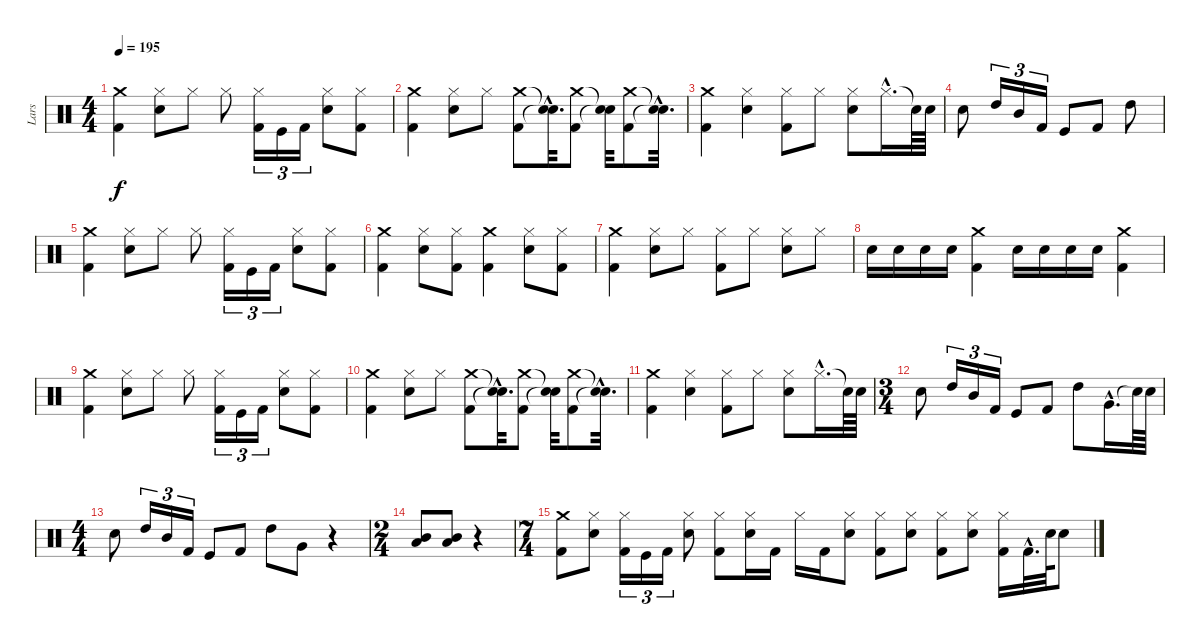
\track ("Lars" "Lars") {instrument percussion}
\staff {score}
\articulation defaults
\ts (4 4)
\tempo 195
\clef neutral
\ks c
("Kick (hit) 2" "Crash medium (hit)").4{dy f} ("Snare (hit) 2" "Hi-Hat (closed)").8 "Hi-Hat (closed)".8 "Hi-Hat (closed)".8 ("Kick (hit) 2" "Hi-Hat (closed)").16{tu (3 2)} "Kick (hit)".16{tu (3 2)} "Kick (hit) 2".16{tu (3 2)} ("Snare (hit) 2" "Hi-Hat (closed)").8 ("Kick (hit) 2" "Hi-Hat (closed)").8 |
("Kick (hit) 2" "Crash medium (hit)").4 ("Hi-Hat (closed)" "Snare (hit) 2").8 "Hi-Hat (closed)".8 ("Kick (hit) 2" "Crash medium (hit)").8 ("Snare (hit)"{hac t} "Snare (hit)"{hac t}).32{d} ("Kick (hit) 2" "Crash medium (hit)").8 ("Snare (hit)"{t} "Snare (hit)"{t}).32 ("Kick (hit) 2" "Crash medium (hit)").8 ("Snare (hit)"{hac t} "Snare (hit)"{hac t}).32{d} |
("Kick (hit) 2" "Crash medium (hit)").4 ("Hi-Hat (closed)" "Snare (hit) 2").4 ("Hi-Hat (closed)" "Kick (hit) 2").8 "Hi-Hat (closed)".8 ("Snare (hit) 2" "Hi-Hat (closed)").8 "Hi-Hat (closed)"{hac}.16{d} "Snare (hit)"{t}.64 "Snare (hit) 2".64 |
"Snare (hit) 2".8 "High Tom (hit)".16{tu (3 2)} "Mid Tom (hit)".16{tu (3 2)} "Kick (hit) 2".16{tu (3 2)} "Kick (hit)".8 "Kick (hit) 2".8 "High Tom (hit)".8 |
("Kick (hit) 2" "Crash medium (hit)").4 ("Snare (hit) 2" "Hi-Hat (closed)").8 "Hi-Hat (closed)".8 "Hi-Hat (closed)".8 ("Kick (hit) 2" "Hi-Hat (closed)").16{tu (3 2)} "Kick (hit)".16{tu (3 2)} "Kick (hit) 2".16{tu (3 2)} ("Snare (hit) 2" "Hi-Hat (closed)").8 ("Kick (hit) 2" "Hi-Hat (closed)").8 |
("Kick (hit) 2" "Crash medium (hit)").4 ("Hi-Hat (closed)" "Snare (hit) 2").8 ("Kick (hit) 2" "Hi-Hat (closed)").8 ("Crash medium (hit)" "Kick (hit) 2").4 ("Hi-Hat (closed)" "Snare (hit) 2").8 ("Kick (hit) 2" "Hi-Hat (closed)").8 |
("Kick (hit) 2" "Crash medium (hit)").4 ("Hi-Hat (closed)" "Snare (hit) 2").8 "Hi-Hat (closed)".8 ("Hi-Hat (closed)" "Kick (hit) 2").8 "Hi-Hat (closed)".8 ("Snare (hit) 2" "Hi-Hat (closed)").8 "Hi-Hat (closed)".8 |
"Snare (hit) 2".16 "Snare (hit) 2".16 "Snare (hit) 2".16 "Snare (hit) 2".16 ("Kick (hit) 2" "Crash medium (hit)").4 "Snare (hit) 2".16 "Snare (hit) 2".16 "Snare (hit) 2".16 "Snare (hit) 2".16 ("Kick (hit) 2" "Crash medium (hit)").4 |
("Kick (hit) 2" "Crash medium (hit)").4 ("Snare (hit) 2" "Hi-Hat (closed)").8 "Hi-Hat (closed)".8 "Hi-Hat (closed)".8 ("Kick (hit) 2" "Hi-Hat (closed)").16{tu (3 2)} "Kick (hit)".16{tu (3 2)} "Kick (hit) 2".16{tu (3 2)} ("Snare (hit) 2" "Hi-Hat (closed)").8 ("Kick (hit) 2" "Hi-Hat (closed)").8 |
("Kick (hit) 2" "Crash medium (hit)").4 ("Hi-Hat (closed)" "Snare (hit) 2").8 "Hi-Hat (closed)".8 ("Kick (hit) 2" "Crash medium (hit)").8 ("Snare (hit)"{hac t} "Snare (hit)"{hac t}).32{d} ("Kick (hit) 2" "Crash medium (hit)").8 ("Snare (hit)"{t} "Snare (hit)"{t}).32 ("Kick (hit) 2" "Crash medium (hit)").8 ("Snare (hit)"{hac t} "Snare (hit)"{hac t}).32{d} |
("Kick (hit) 2" "Crash medium (hit)").4 ("Hi-Hat (closed)" "Snare (hit) 2").4 ("Hi-Hat (closed)" "Kick (hit) 2").8 "Hi-Hat (closed)".8 ("Snare (hit) 2" "Hi-Hat (closed)").8 "Hi-Hat (closed)"{hac}.16{d} "Snare (hit)"{t}.64 "Snare (hit) 2".64 |
\ts (3 4)
"Snare (hit) 2".8 "High Tom (hit)".16{tu (3 2)} "Mid Tom (hit)".16{tu (3 2)} "Kick (hit) 2".16{tu (3 2)} "Kick (hit)".8 "Kick (hit) 2".8 "High Tom (hit)".8 "Very Low Tom (hit)"{hac}.16{d} "Snare (hit)"{t}.64 "Snare (hit) 2".64 |
\ts (4 4)
"Snare (hit) 2".8 "High Tom (hit)".16{tu (3 2)} "Mid Tom (hit)".16{tu (3 2)} "Kick (hit) 2".16{tu (3 2)} "Kick (hit)".8 "Kick (hit) 2".8 "High Tom (hit)".8 "Very Low Tom (hit)".8 r.4 |
\ts (2 4)
("Mid Tom (hit)" "Low Tom (hit)").8 ("Mid Tom (hit)" "Low Tom (hit)").8 r.4 |
\ts (7 4)
("Crash medium (hit)" "Kick (hit) 2").8 ("Snare (hit) 2" "Hi-Hat (closed)").8 ("Hi-Hat (closed)" "Kick (hit) 2").16{tu (3 2)} "Kick (hit)".16{tu (3 2)} "Kick (hit) 2".16{tu (3 2)} ("Snare (hit) 2" "Hi-Hat (closed)").8 ("Hi-Hat (closed)" "Kick (hit) 2").8 ("Snare (hit) 2" "Hi-Hat (closed)").16 "Kick (hit) 2".16 "Hi-Hat (closed)".16 "Kick (hit) 2".16 ("Snare (hit) 2" "Hi-Hat (closed)").8 ("Hi-Hat (closed)" "Kick (hit) 2").8 ("Snare (hit) 2" "Hi-Hat (closed)").8 ("Hi-Hat (closed)" "Kick (hit) 2").8 ("Snare (hit) 2" "Hi-Hat (closed)").8 ("Hi-Hat (closed)" "Kick (hit) 2").16 "Kick (hit) 2"{hac}.32{d} "Snare (hit) 2".64 "Snare (hit) 2".8
